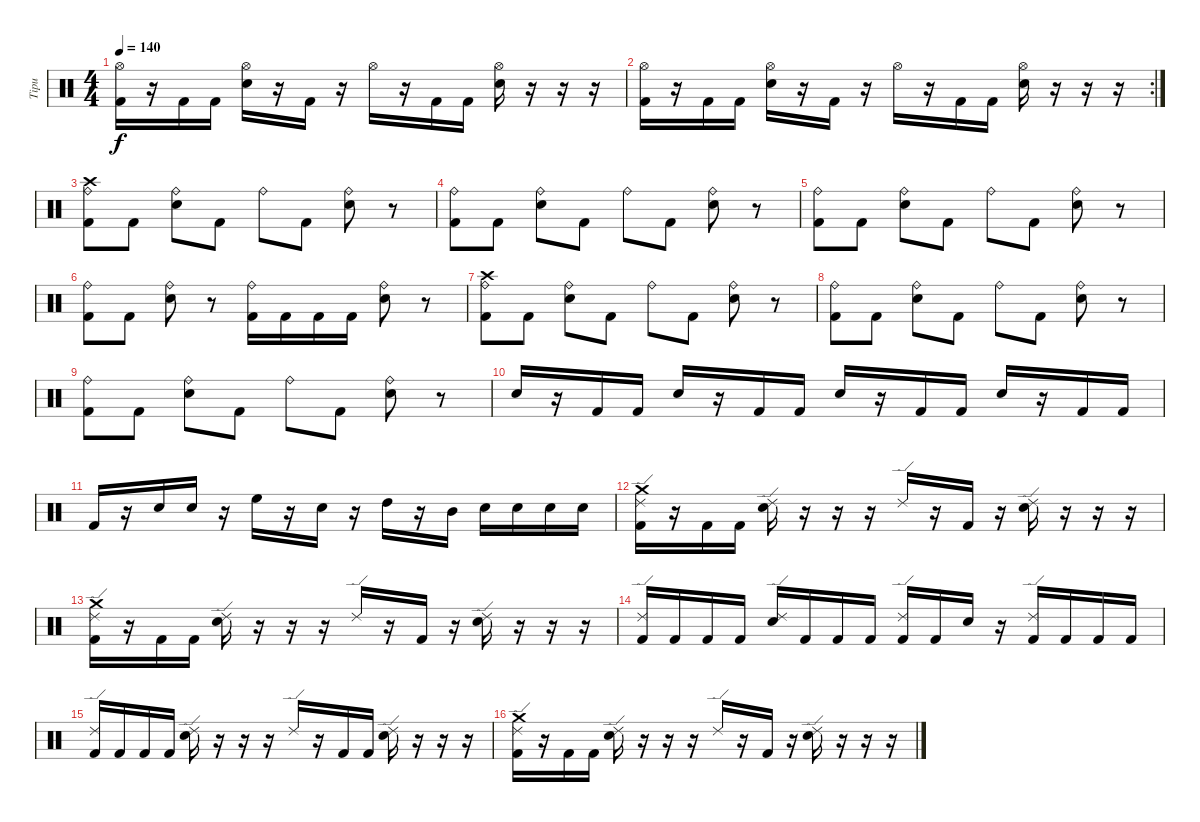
\track ("Tipu" "Tipu") {instrument percussion}
\staff {score}
\articulation defaults
\ts (4 4)
\tempo 140
\clef neutral
\ks c
("Hi-Hat (open)" "Kick (hit) 2").16{dy f} r.16 "Kick (hit) 2".16 "Kick (hit) 2".16 ("Hi-Hat (open)" "Electric Snare (hit)").16 r.16 "Kick (hit) 2".16 r.16 "Hi-Hat (open)".16 r.16 "Kick (hit) 2".16 "Kick (hit) 2".16 ("Hi-Hat (open)" "Electric Snare (hit)").16 r.16 r.16 r.16 |
\rc 2
("Hi-Hat (open)" "Kick (hit) 2").16 r.16 "Kick (hit) 2".16 "Kick (hit) 2".16 ("Hi-Hat (open)" "Electric Snare (hit)").16 r.16 "Kick (hit) 2".16 r.16 "Hi-Hat (open)".16 r.16 "Kick (hit) 2".16 "Kick (hit) 2".16 ("Hi-Hat (open)" "Electric Snare (hit)").16 r.16 r.16 r.16 |
("Crash high (hit)" "Ride (bell)" "Kick (hit) 2").8 "Kick (hit) 2".8 ("Ride (bell)" "Electric Snare (hit)").8 "Kick (hit) 2".8 "Ride (bell)".8 "Kick (hit) 2".8 ("Ride (bell)" "Electric Snare (hit)").8 r.8 |
("Ride (bell)" "Kick (hit) 2").8 "Kick (hit) 2".8 ("Ride (bell)" "Electric Snare (hit)").8 "Kick (hit) 2".8 "Ride (bell)".8 "Kick (hit) 2".8 ("Ride (bell)" "Electric Snare (hit)").8 r.8 |
("Ride (bell)" "Kick (hit) 2").8 "Kick (hit) 2".8 ("Ride (bell)" "Electric Snare (hit)").8 "Kick (hit) 2".8 "Ride (bell)".8 "Kick (hit) 2".8 ("Ride (bell)" "Electric Snare (hit)").8 r.8 |
("Ride (bell)" "Kick (hit) 2").8 "Kick (hit) 2".8 ("Ride (bell)" "Electric Snare (hit)").8 r.8 ("Ride (bell)" "Kick (hit) 2").16 "Kick (hit) 2".16 "Kick (hit) 2".16 "Kick (hit) 2".16 ("Ride (bell)" "Electric Snare (hit)").8 r.8 |
("Crash high (hit)" "Ride (bell)" "Kick (hit) 2").8 "Kick (hit) 2".8 ("Ride (bell)" "Electric Snare (hit)").8 "Kick (hit) 2".8 "Ride (bell)".8 "Kick (hit) 2".8 ("Ride (bell)" "Electric Snare (hit)").8 r.8 |
("Ride (bell)" "Kick (hit) 2").8 "Kick (hit) 2".8 ("Ride (bell)" "Electric Snare (hit)").8 "Kick (hit) 2".8 "Ride (bell)".8 "Kick (hit) 2".8 ("Ride (bell)" "Electric Snare (hit)").8 r.8 |
("Ride (bell)" "Kick (hit) 2").8 "Kick (hit) 2".8 ("Ride (bell)" "Electric Snare (hit)").8 "Kick (hit) 2".8 "Ride (bell)".8 "Kick (hit) 2".8 ("Ride (bell)" "Electric Snare (hit)").8 r.8 |
"Electric Snare (hit)".16 r.16 "Kick (hit) 2".16 "Kick (hit) 2".16 "Electric Snare (hit)".16 r.16 "Kick (hit) 2".16 "Kick (hit) 2".16 "Electric Snare (hit)".16 r.16 "Kick (hit) 2".16 "Kick (hit) 2".16 "Electric Snare (hit)".16 r.16 "Kick (hit) 2".16 "Kick (hit) 2".16 |
"Kick (hit) 2".16 r.16 "Electric Snare (hit)".16 "Electric Snare (hit)".16 r.16 "High Floor Tom (hit)".16 r.16 "Electric Snare (hit)".16 r.16 "High Tom (hit)".16 r.16 "Mid Tom (hit)".16 "Electric Snare (hit)".16 "Electric Snare (hit)".16 "Electric Snare (hit)".16 "Electric Snare (hit)".16 |
("Kick (hit) 2" "Ride (edge) 2" "Crash medium (hit)").16 r.16 "Kick (hit) 2".16 "Kick (hit) 2".16 ("Electric Snare (hit)" "Ride (edge) 2").16 r.16 r.16 r.16 "Ride (edge) 2".16 r.16 "Kick (hit) 2".16 r.16 ("Electric Snare (hit)" "Ride (edge) 2").16 r.16 r.16 r.16 |
("Kick (hit) 2" "Ride (edge) 2" "Crash medium (hit)").16 r.16 "Kick (hit) 2".16 "Kick (hit) 2".16 ("Electric Snare (hit)" "Ride (edge) 2").16 r.16 r.16 r.16 "Ride (edge) 2".16 r.16 "Kick (hit) 2".16 r.16 ("Electric Snare (hit)" "Ride (edge) 2").16 r.16 r.16 r.16 |
("Kick (hit) 2" "Ride (edge) 2").16 "Kick (hit) 2".16 "Kick (hit) 2".16 "Kick (hit) 2".16 ("Electric Snare (hit)" "Ride (edge) 2").16 "Kick (hit) 2".16 "Kick (hit) 2".16 "Kick (hit) 2".16 ("Kick (hit) 2" "Ride (edge) 2").16 "Kick (hit) 2".16 "Electric Snare (hit)".16 r.16 ("Kick (hit) 2" "Ride (edge) 2").16 "Kick (hit) 2".16 "Kick (hit) 2".16 "Kick (hit) 2".16 |
("Kick (hit) 2" "Ride (edge) 2").16 "Kick (hit) 2".16 "Kick (hit) 2".16 "Kick (hit) 2".16 ("Electric Snare (hit)" "Ride (edge) 2").16 r.16 r.16 r.16 "Ride (edge) 2".16 r.16 "Kick (hit) 2".16 "Kick (hit) 2".16 ("Electric Snare (hit)" "Ride (edge) 2").16 r.16 r.16 r.16 |
("Kick (hit) 2" "Ride (edge) 2" "Crash medium (hit)").16 r.16 "Kick (hit) 2".16 "Kick (hit) 2".16 ("Electric Snare (hit)" "Ride (edge) 2").16 r.16 r.16 r.16 "Ride (edge) 2".16 r.16 "Kick (hit) 2".16 r.16 ("Electric Snare (hit)" "Ride (edge) 2").16 r.16 r.16 r.16
